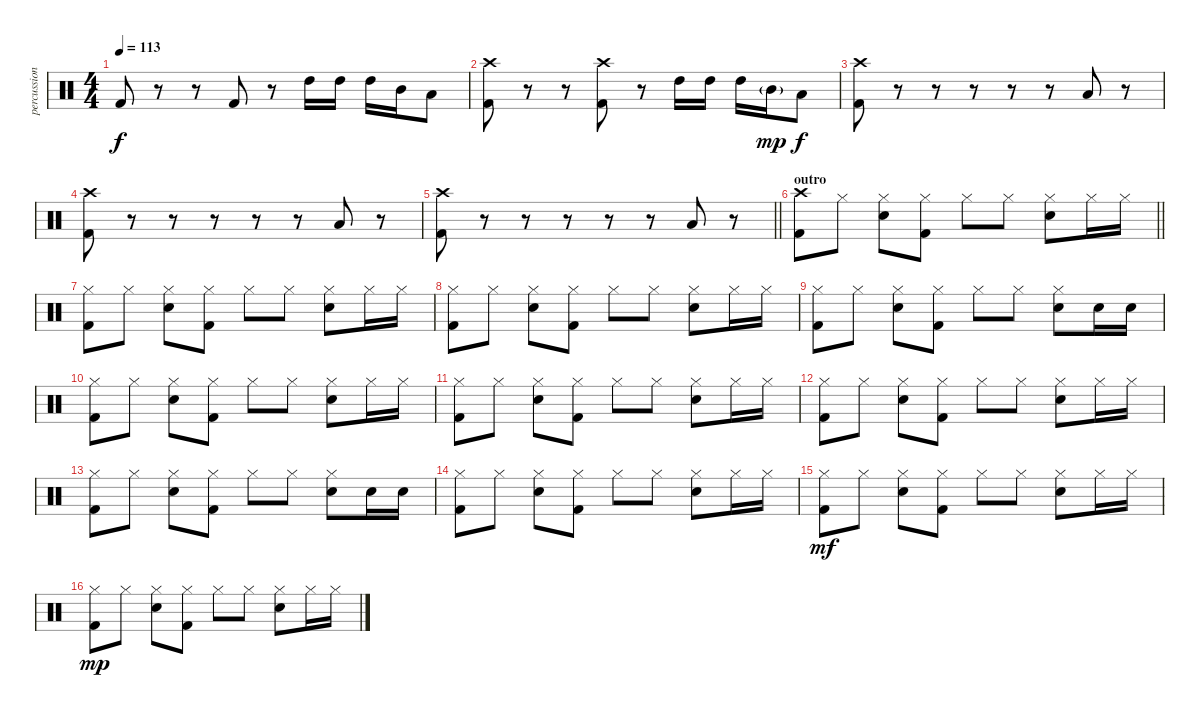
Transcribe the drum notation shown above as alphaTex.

\track ("percussion" "percussion") {instrument percussion}
\staff {score}
\articulation defaults
\ts (4 4)
\tempo 113
\clef neutral
\ks c "Kick (hit) 2".8{dy f}
r.8 r.8 "Kick (hit) 2".8 r.8 "High Tom (hit)".16 "High Tom (hit)".16 "High Tom (hit)".16 "Mid Tom (hit)".16 "Low Tom (hit)".8 |
("Crash high (hit)" "Kick (hit) 2").8 r.8 r.8 ("Crash high (hit)" "Kick (hit) 2").8 r.8 "High Tom (hit)".16 "High Tom (hit)".16 "High Tom (hit)".16 "Mid Tom (hit)"{g}.16{dy mp} "Low Tom (hit)".8{dy f} |
("Crash high (hit)" "Kick (hit) 2").8 r.8 r.8 r.8 r.8 r.8 "Low Tom (hit)".8 r.8 |
("Crash high (hit)" "Kick (hit) 2").8 r.8 r.8 r.8 r.8 r.8 "Low Tom (hit)".8 r.8 |
\barLineRight lightlight
("Crash high (hit)" "Kick (hit) 2").8 r.8 r.8 r.8 r.8 r.8 "Low Tom (hit)".8 r.8 |
\section ("" "outro")
\barLineRight lightlight
("Crash high (hit)" "Kick (hit) 2").8 "Hi-Hat (closed)".8 ("Snare (hit) 2" "Hi-Hat (closed)").8 ("Hi-Hat (closed)" "Kick (hit) 2").8 "Hi-Hat (closed)".8 "Hi-Hat (closed)".8 ("Snare (hit) 2" "Hi-Hat (closed)").8 "Hi-Hat (closed)".16 "Hi-Hat (closed)".16 |
("Hi-Hat (closed)" "Kick (hit) 2").8 "Hi-Hat (closed)".8 ("Snare (hit) 2" "Hi-Hat (closed)").8 ("Hi-Hat (closed)" "Kick (hit) 2").8 "Hi-Hat (closed)".8 "Hi-Hat (closed)".8 ("Snare (hit) 2" "Hi-Hat (closed)").8 "Hi-Hat (closed)".16 "Hi-Hat (closed)".16 |
("Hi-Hat (closed)" "Kick (hit) 2").8 "Hi-Hat (closed)".8 ("Snare (hit) 2" "Hi-Hat (closed)").8 ("Hi-Hat (closed)" "Kick (hit) 2").8 "Hi-Hat (closed)".8 "Hi-Hat (closed)".8 ("Snare (hit) 2" "Hi-Hat (closed)").8 "Hi-Hat (closed)".16 "Hi-Hat (closed)".16 |
("Hi-Hat (closed)" "Kick (hit) 2").8 "Hi-Hat (closed)".8 ("Snare (hit) 2" "Hi-Hat (closed)").8 ("Hi-Hat (closed)" "Kick (hit) 2").8 "Hi-Hat (closed)".8 "Hi-Hat (closed)".8 ("Snare (hit) 2" "Hi-Hat (closed)").8 "Snare (hit) 2".16 "Snare (hit) 2".16 |
("Hi-Hat (closed)" "Kick (hit) 2").8 "Hi-Hat (closed)".8 ("Snare (hit) 2" "Hi-Hat (closed)").8 ("Hi-Hat (closed)" "Kick (hit) 2").8 "Hi-Hat (closed)".8 "Hi-Hat (closed)".8 ("Snare (hit) 2" "Hi-Hat (closed)").8 "Hi-Hat (closed)".16 "Hi-Hat (closed)".16 |
("Hi-Hat (closed)" "Kick (hit) 2").8 "Hi-Hat (closed)".8 ("Snare (hit) 2" "Hi-Hat (closed)").8 ("Hi-Hat (closed)" "Kick (hit) 2").8 "Hi-Hat (closed)".8 "Hi-Hat (closed)".8 ("Snare (hit) 2" "Hi-Hat (closed)").8 "Hi-Hat (closed)".16 "Hi-Hat (closed)".16 |
("Hi-Hat (closed)" "Kick (hit) 2").8 "Hi-Hat (closed)".8 ("Snare (hit) 2" "Hi-Hat (closed)").8 ("Hi-Hat (closed)" "Kick (hit) 2").8 "Hi-Hat (closed)".8 "Hi-Hat (closed)".8 ("Snare (hit) 2" "Hi-Hat (closed)").8 "Hi-Hat (closed)".16 "Hi-Hat (closed)".16 |
("Hi-Hat (closed)" "Kick (hit) 2").8 "Hi-Hat (closed)".8 ("Snare (hit) 2" "Hi-Hat (closed)").8 ("Hi-Hat (closed)" "Kick (hit) 2").8 "Hi-Hat (closed)".8 "Hi-Hat (closed)".8 ("Snare (hit) 2" "Hi-Hat (closed)").8 "Snare (hit) 2".16 "Snare (hit) 2".16 |
("Hi-Hat (closed)" "Kick (hit) 2").8 "Hi-Hat (closed)".8 ("Snare (hit) 2" "Hi-Hat (closed)").8 ("Hi-Hat (closed)" "Kick (hit) 2").8 "Hi-Hat (closed)".8 "Hi-Hat (closed)".8 ("Snare (hit) 2" "Hi-Hat (closed)").8 "Hi-Hat (closed)".16 "Hi-Hat (closed)".16 |
("Hi-Hat (closed)" "Kick (hit) 2").8{dy mf} "Hi-Hat (closed)".8 ("Snare (hit) 2" "Hi-Hat (closed)").8 ("Hi-Hat (closed)" "Kick (hit) 2").8 "Hi-Hat (closed)".8 "Hi-Hat (closed)".8 ("Snare (hit) 2" "Hi-Hat (closed)").8 "Hi-Hat (closed)".16 "Hi-Hat (closed)".16 |
("Hi-Hat (closed)" "Kick (hit) 2").8{dy mp} "Hi-Hat (closed)".8 ("Snare (hit) 2" "Hi-Hat (closed)").8 ("Hi-Hat (closed)" "Kick (hit) 2").8 "Hi-Hat (closed)".8 "Hi-Hat (closed)".8 ("Snare (hit) 2" "Hi-Hat (closed)").8 "Hi-Hat (closed)".16 "Hi-Hat (closed)".16
